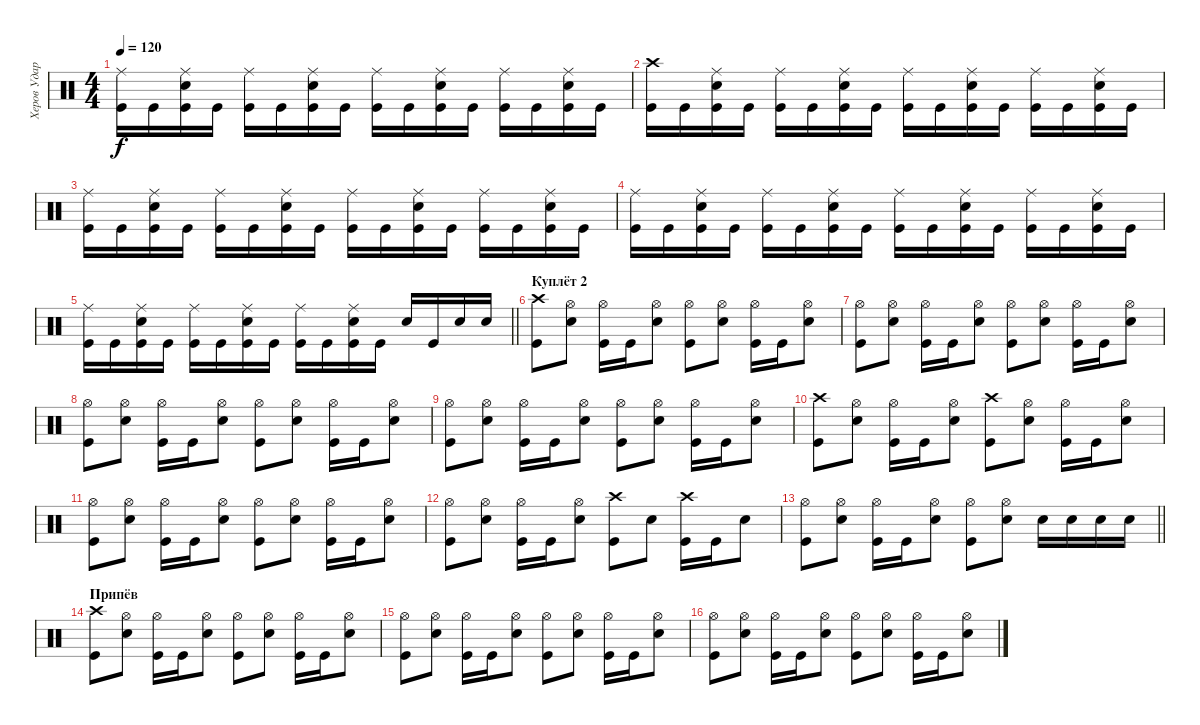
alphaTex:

\track ("Херов Ударник" "Херов Удар") {instrument percussion}
\staff {score}
\articulation defaults
\ts (4 4)
\tempo 120
\clef neutral
\ks c
("Ride (middle)" "Kick (hit)").16{dy f} "Kick (hit)".16 ("Ride (middle)" "Electric Snare (hit)" "Kick (hit)").16 "Kick (hit)".16 ("Ride (middle)" "Kick (hit)").16 "Kick (hit)".16 ("Ride (middle)" "Electric Snare (hit)" "Kick (hit)").16 "Kick (hit)".16 ("Ride (middle)" "Kick (hit)").16 "Kick (hit)".16 ("Ride (middle)" "Electric Snare (hit)" "Kick (hit)").16 "Kick (hit)".16 ("Ride (middle)" "Kick (hit)").16 "Kick (hit)".16 ("Ride (middle)" "Electric Snare (hit)" "Kick (hit)").16 "Kick (hit)".16 |
("Crash high (hit)" "Kick (hit)").16 "Kick (hit)".16 ("Ride (middle)" "Electric Snare (hit)" "Kick (hit)").16 "Kick (hit)".16 ("Ride (middle)" "Kick (hit)").16 "Kick (hit)".16 ("Ride (middle)" "Electric Snare (hit)" "Kick (hit)").16 "Kick (hit)".16 ("Ride (middle)" "Kick (hit)").16 "Kick (hit)".16 ("Ride (middle)" "Electric Snare (hit)" "Kick (hit)").16 "Kick (hit)".16 ("Ride (middle)" "Kick (hit)").16 "Kick (hit)".16 ("Ride (middle)" "Electric Snare (hit)" "Kick (hit)").16 "Kick (hit)".16 |
("Ride (middle)" "Kick (hit)").16 "Kick (hit)".16 ("Ride (middle)" "Electric Snare (hit)" "Kick (hit)").16 "Kick (hit)".16 ("Ride (middle)" "Kick (hit)").16 "Kick (hit)".16 ("Ride (middle)" "Electric Snare (hit)" "Kick (hit)").16 "Kick (hit)".16 ("Ride (middle)" "Kick (hit)").16 "Kick (hit)".16 ("Ride (middle)" "Electric Snare (hit)" "Kick (hit)").16 "Kick (hit)".16 ("Ride (middle)" "Kick (hit)").16 "Kick (hit)".16 ("Ride (middle)" "Electric Snare (hit)" "Kick (hit)").16 "Kick (hit)".16 |
("Ride (middle)" "Kick (hit)").16 "Kick (hit)".16 ("Ride (middle)" "Electric Snare (hit)" "Kick (hit)").16 "Kick (hit)".16 ("Ride (middle)" "Kick (hit)").16 "Kick (hit)".16 ("Ride (middle)" "Electric Snare (hit)" "Kick (hit)").16 "Kick (hit)".16 ("Ride (middle)" "Kick (hit)").16 "Kick (hit)".16 ("Ride (middle)" "Electric Snare (hit)" "Kick (hit)").16 "Kick (hit)".16 ("Ride (middle)" "Kick (hit)").16 "Kick (hit)".16 ("Ride (middle)" "Electric Snare (hit)" "Kick (hit)").16 "Kick (hit)".16 |
\barLineRight lightlight
("Ride (middle)" "Kick (hit)").16 "Kick (hit)".16 ("Ride (middle)" "Electric Snare (hit)" "Kick (hit)").16 "Kick (hit)".16 ("Ride (middle)" "Kick (hit)").16 "Kick (hit)".16 ("Ride (middle)" "Electric Snare (hit)" "Kick (hit)").16 "Kick (hit)".16 ("Ride (middle)" "Kick (hit)").16 "Kick (hit)".16 ("Ride (middle)" "Electric Snare (hit)" "Kick (hit)").16 "Kick (hit)".16 "Electric Snare (hit)".16 "Kick (hit)".16 "Electric Snare (hit)".16 "Electric Snare (hit)".16 |
\section ("" "Куплёт 2")
("Crash high (hit)" "Kick (hit)").8 ("Hi-Hat (open)" "Electric Snare (hit)").8 ("Hi-Hat (open)" "Kick (hit)").16 "Kick (hit)".16 ("Hi-Hat (open)" "Electric Snare (hit)").8 ("Hi-Hat (open)" "Kick (hit)").8 ("Hi-Hat (open)" "Electric Snare (hit)").8 ("Hi-Hat (open)" "Kick (hit)").16 "Kick (hit)".16 ("Hi-Hat (open)" "Electric Snare (hit)").8 |
("Hi-Hat (open)" "Kick (hit)").8 ("Hi-Hat (open)" "Electric Snare (hit)").8 ("Hi-Hat (open)" "Kick (hit)").16 "Kick (hit)".16 ("Hi-Hat (open)" "Electric Snare (hit)").8 ("Hi-Hat (open)" "Kick (hit)").8 ("Hi-Hat (open)" "Electric Snare (hit)").8 ("Hi-Hat (open)" "Kick (hit)").16 "Kick (hit)".16 ("Hi-Hat (open)" "Electric Snare (hit)").8 |
("Hi-Hat (open)" "Kick (hit)").8 ("Hi-Hat (open)" "Electric Snare (hit)").8 ("Hi-Hat (open)" "Kick (hit)").16 "Kick (hit)".16 ("Hi-Hat (open)" "Electric Snare (hit)").8 ("Hi-Hat (open)" "Kick (hit)").8 ("Hi-Hat (open)" "Electric Snare (hit)").8 ("Hi-Hat (open)" "Kick (hit)").16 "Kick (hit)".16 ("Hi-Hat (open)" "Electric Snare (hit)").8 |
("Hi-Hat (open)" "Kick (hit)").8 ("Hi-Hat (open)" "Electric Snare (hit)").8 ("Hi-Hat (open)" "Kick (hit)").16 "Kick (hit)".16 ("Hi-Hat (open)" "Electric Snare (hit)").8 ("Hi-Hat (open)" "Kick (hit)").8 ("Hi-Hat (open)" "Electric Snare (hit)").8 ("Hi-Hat (open)" "Kick (hit)").16 "Kick (hit)".16 ("Hi-Hat (open)" "Electric Snare (hit)").8 |
("Crash high (hit)" "Kick (hit)").8 ("Hi-Hat (open)" "Electric Snare (hit)").8 ("Hi-Hat (open)" "Kick (hit)").16 "Kick (hit)".16 ("Hi-Hat (open)" "Electric Snare (hit)").8 ("Crash high (hit)" "Kick (hit)").8 ("Hi-Hat (open)" "Electric Snare (hit)").8 ("Hi-Hat (open)" "Kick (hit)").16 "Kick (hit)".16 ("Hi-Hat (open)" "Electric Snare (hit)").8 |
("Hi-Hat (open)" "Kick (hit)").8 ("Hi-Hat (open)" "Electric Snare (hit)").8 ("Hi-Hat (open)" "Kick (hit)").16 "Kick (hit)".16 ("Hi-Hat (open)" "Electric Snare (hit)").8 ("Hi-Hat (open)" "Kick (hit)").8 ("Hi-Hat (open)" "Electric Snare (hit)").8 ("Hi-Hat (open)" "Kick (hit)").16 "Kick (hit)".16 ("Hi-Hat (open)" "Electric Snare (hit)").8 |
("Hi-Hat (open)" "Kick (hit)").8 ("Hi-Hat (open)" "Electric Snare (hit)").8 ("Hi-Hat (open)" "Kick (hit)").16 "Kick (hit)".16 ("Hi-Hat (open)" "Electric Snare (hit)").8 ("Crash high (hit)" "Kick (hit)").8 "Electric Snare (hit)".8 ("Crash high (hit)" "Kick (hit)").16 "Kick (hit)".16 "Electric Snare (hit)".8 |
\barLineRight lightlight
("Hi-Hat (open)" "Kick (hit)").8 ("Hi-Hat (open)" "Electric Snare (hit)").8 ("Hi-Hat (open)" "Kick (hit)").16 "Kick (hit)".16 ("Hi-Hat (open)" "Electric Snare (hit)").8 ("Hi-Hat (open)" "Kick (hit)").8 ("Hi-Hat (open)" "Electric Snare (hit)").8 "Electric Snare (hit)".16 "Electric Snare (hit)".16 "Electric Snare (hit)".16 "Electric Snare (hit)".16 |
\section ("" "Припёв")
("Crash high (hit)" "Kick (hit)").8 ("Hi-Hat (open)" "Electric Snare (hit)").8 ("Hi-Hat (open)" "Kick (hit)").16 "Kick (hit)".16 ("Hi-Hat (open)" "Electric Snare (hit)").8 ("Hi-Hat (open)" "Kick (hit)").8 ("Hi-Hat (open)" "Electric Snare (hit)").8 ("Hi-Hat (open)" "Kick (hit)").16 "Kick (hit)".16 ("Hi-Hat (open)" "Electric Snare (hit)").8 |
("Hi-Hat (open)" "Kick (hit)").8 ("Hi-Hat (open)" "Electric Snare (hit)").8 ("Hi-Hat (open)" "Kick (hit)").16 "Kick (hit)".16 ("Hi-Hat (open)" "Electric Snare (hit)").8 ("Hi-Hat (open)" "Kick (hit)").8 ("Hi-Hat (open)" "Electric Snare (hit)").8 ("Hi-Hat (open)" "Kick (hit)").16 "Kick (hit)".16 ("Hi-Hat (open)" "Electric Snare (hit)").8 |
("Hi-Hat (open)" "Kick (hit)").8 ("Hi-Hat (open)" "Electric Snare (hit)").8 ("Hi-Hat (open)" "Kick (hit)").16 "Kick (hit)".16 ("Hi-Hat (open)" "Electric Snare (hit)").8 ("Hi-Hat (open)" "Kick (hit)").8 ("Hi-Hat (open)" "Electric Snare (hit)").8 ("Hi-Hat (open)" "Kick (hit)").16 "Kick (hit)".16 ("Hi-Hat (open)" "Electric Snare (hit)").8
